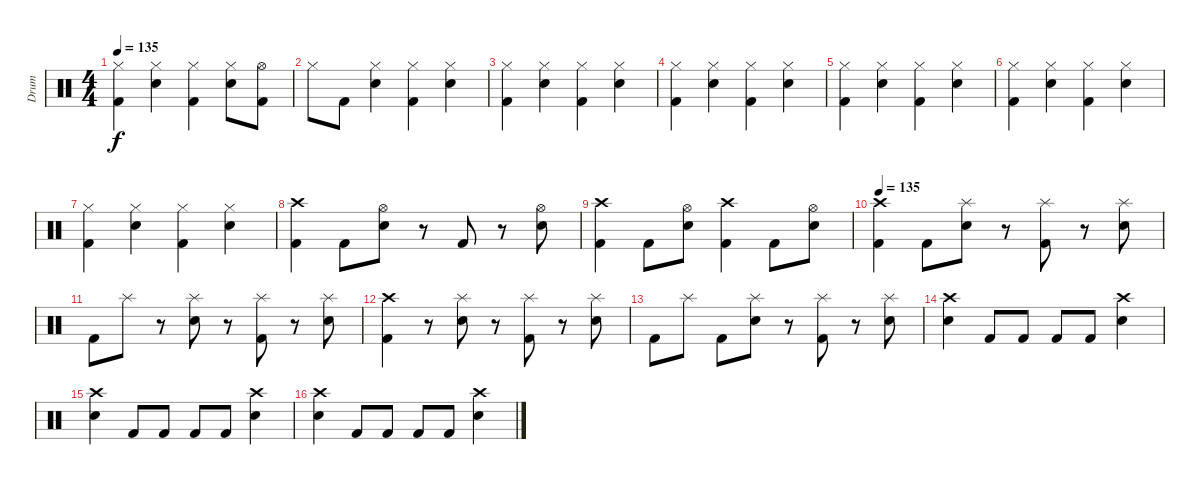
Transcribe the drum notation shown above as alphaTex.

\track ("Drum" "Drum") {instrument percussion}
\staff {score}
\articulation defaults
\ts (4 4)
\tempo 135
\clef neutral
\ks c
("Hi-Hat (closed)" "Kick (hit) 2").4{dy f} ("Hi-Hat (closed)" "Electric Snare (hit)").4 ("Kick (hit) 2" "Hi-Hat (closed)").4 ("Electric Snare (hit)" "Hi-Hat (closed)").8 ("Kick (hit) 2" "Hi-Hat (open)").8 |
"Hi-Hat (closed)".8 "Kick (hit) 2".8 ("Hi-Hat (closed)" "Electric Snare (hit)").4 ("Hi-Hat (closed)" "Kick (hit) 2").4 ("Hi-Hat (closed)" "Electric Snare (hit)").4 |
("Hi-Hat (closed)" "Kick (hit) 2").4 ("Hi-Hat (closed)" "Electric Snare (hit)").4 ("Kick (hit) 2" "Hi-Hat (closed)").4 ("Electric Snare (hit)" "Hi-Hat (closed)").4 |
("Hi-Hat (closed)" "Kick (hit) 2").4 ("Hi-Hat (closed)" "Electric Snare (hit)").4 ("Hi-Hat (closed)" "Kick (hit) 2").4 ("Hi-Hat (closed)" "Electric Snare (hit)").4 |
("Hi-Hat (closed)" "Kick (hit) 2").4 ("Hi-Hat (closed)" "Electric Snare (hit)").4 ("Kick (hit) 2" "Hi-Hat (closed)").4 ("Electric Snare (hit)" "Hi-Hat (closed)").4 |
("Hi-Hat (closed)" "Kick (hit) 2").4 ("Hi-Hat (closed)" "Electric Snare (hit)").4 ("Hi-Hat (closed)" "Kick (hit) 2").4 ("Hi-Hat (closed)" "Electric Snare (hit)").4 |
("Hi-Hat (closed)" "Kick (hit) 2").4 ("Hi-Hat (closed)" "Electric Snare (hit)").4 ("Kick (hit) 2" "Hi-Hat (closed)").4 ("Electric Snare (hit)" "Hi-Hat (closed)").4 |
("Kick (hit) 2" "Crash high (hit)").4 "Kick (hit) 2".8 ("Hi-Hat (open)" "Electric Snare (hit)").8 r.8 "Kick (hit) 2".8 r.8 ("Hi-Hat (open)" "Electric Snare (hit)").8 |
("Kick (hit) 2" "Crash high (hit)").4 "Kick (hit) 2".8 ("Hi-Hat (open)" "Electric Snare (hit)").8 ("Crash high (hit)" "Kick (hit) 2").4 "Kick (hit) 2".8 ("Electric Snare (hit)" "Hi-Hat (open)").8 |
\tempo 135
("Crash high (hit)" "Kick (hit) 2").4 "Kick (hit) 2".8 ("Splash (hit)" "Electric Snare (hit)").8 r.8 ("Splash (hit)" "Kick (hit) 2").8 r.8 ("Splash (hit)" "Electric Snare (hit)").8 |
"Kick (hit) 2".8 "Splash (hit)".8 r.8 ("Splash (hit)" "Electric Snare (hit)").8 r.8 ("Splash (hit)" "Kick (hit) 2").8 r.8 ("Splash (hit)" "Electric Snare (hit)").8 |
("Crash high (hit)" "Kick (hit) 2").4 r.8 ("Splash (hit)" "Electric Snare (hit)").8 r.8 ("Splash (hit)" "Kick (hit) 2").8 r.8 ("Splash (hit)" "Electric Snare (hit)").8 |
"Kick (hit) 2".8 "Splash (hit)".8 "Kick (hit) 2".8 ("Splash (hit)" "Electric Snare (hit)").8 r.8 ("Splash (hit)" "Kick (hit) 2").8 r.8 ("Splash (hit)" "Electric Snare (hit)").8 |
("Crash high (hit)" "Electric Snare (hit)").4 "Kick (hit) 2".8 "Kick (hit) 2".8 "Kick (hit) 2".8 "Kick (hit) 2".8 ("Crash high (hit)" "Electric Snare (hit)").4 |
("Crash high (hit)" "Electric Snare (hit)").4 "Kick (hit) 2".8 "Kick (hit) 2".8 "Kick (hit) 2".8 "Kick (hit) 2".8 ("Crash high (hit)" "Electric Snare (hit)").4 |
("Crash high (hit)" "Electric Snare (hit)").4 "Kick (hit) 2".8 "Kick (hit) 2".8 "Kick (hit) 2".8 "Kick (hit) 2".8 ("Crash high (hit)" "Electric Snare (hit)").4
